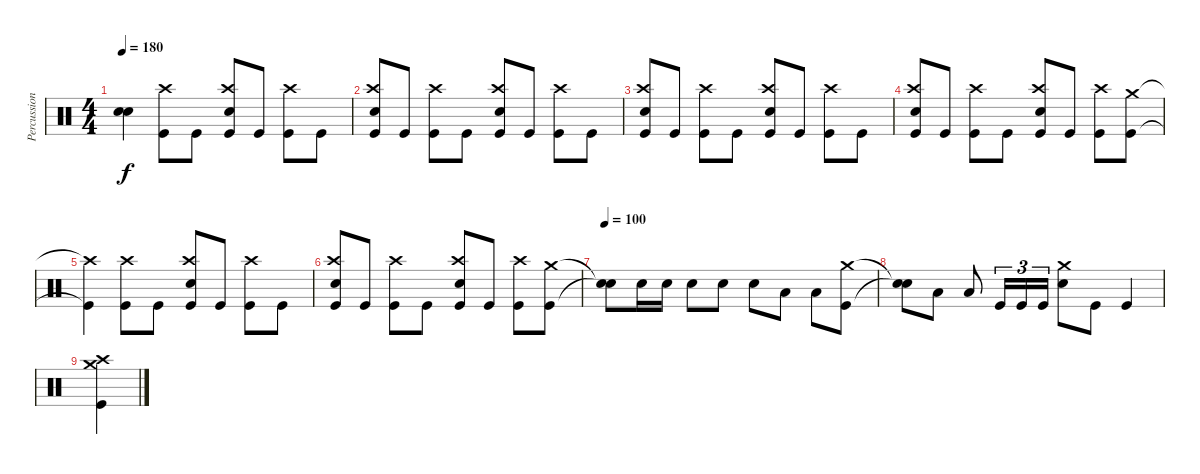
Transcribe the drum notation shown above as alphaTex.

\track ("Percussion" "Percussion") {instrument percussion}
\staff {score}
\articulation defaults
\ts (4 4)
\tempo 180
\clef neutral
\ks c
("Snare (hit)"{t} "Snare (hit)"{t}).4{dy f} ("Crash high (hit)" "Kick (hit)").8 "Kick (hit)".8 ("Crash high (hit)" "Snare (hit) 2" "Kick (hit)").8 "Kick (hit)".8 ("Crash high (hit)" "Kick (hit)").8 "Kick (hit)".8 |
("Crash high (hit)" "Snare (hit) 2" "Kick (hit)").8 "Kick (hit)".8 ("Crash high (hit)" "Kick (hit)").8 "Kick (hit)".8 ("Crash high (hit)" "Snare (hit) 2" "Kick (hit)").8 "Kick (hit)".8 ("Crash high (hit)" "Kick (hit)").8 "Kick (hit)".8 |
("Crash high (hit)" "Snare (hit) 2" "Kick (hit)").8 "Kick (hit)".8 ("Crash high (hit)" "Kick (hit)").8 "Kick (hit)".8 ("Crash high (hit)" "Snare (hit) 2" "Kick (hit)").8 "Kick (hit)".8 ("Crash high (hit)" "Kick (hit)").8 "Kick (hit)".8 |
("Crash high (hit)" "Snare (hit) 2" "Kick (hit)").8 "Kick (hit)".8 ("Crash high (hit)" "Kick (hit)").8 "Kick (hit)".8 ("Crash high (hit)" "Snare (hit) 2" "Kick (hit)").8 "Kick (hit)".8 ("Crash high (hit)" "Kick (hit)").8 ("Crash medium (hit)" "Kick (hit)").8 |
("Crash high (hit)"{t} "Kick (hit)"{t}).4 ("Crash high (hit)" "Kick (hit)").8 "Kick (hit)".8 ("Crash high (hit)" "Snare (hit) 2" "Kick (hit)").8 "Kick (hit)".8 ("Crash high (hit)" "Kick (hit)").8 "Kick (hit)".8 |
("Crash high (hit)" "Snare (hit) 2" "Kick (hit)").8 "Kick (hit)".8 ("Crash high (hit)" "Kick (hit)").8 "Kick (hit)".8 ("Crash high (hit)" "Snare (hit) 2" "Kick (hit)").8 "Kick (hit)".8 ("Crash high (hit)" "Kick (hit)").8 ("Crash medium (hit)" "Kick (hit)").8 |
\tempo 100
("Snare (hit)"{t} "Snare (hit)"{t}).8 "Snare (hit) 2".16 "Snare (hit) 2".16 "Snare (hit) 2".8 "Snare (hit) 2".8 "Snare (hit) 2".8 "Low Tom (hit)".8 "Low Floor Tom (hit)".8 ("Crash medium (hit)" "Kick (hit)").8 |
("Snare (hit)"{t} "Snare (hit)"{t}).8 "Low Tom (hit)".8 "Low Floor Tom (hit)".8 "Kick (hit)".16{tu (3 2)} "Kick (hit)".16{tu (3 2)} "Kick (hit)".16{tu (3 2)} ("Crash medium (hit)" "Snare (hit) 2").8 "Kick (hit)".8 "Kick (hit)".4 |
("Crash medium (hit)" "Crash high (hit)" "Kick (hit)").4
